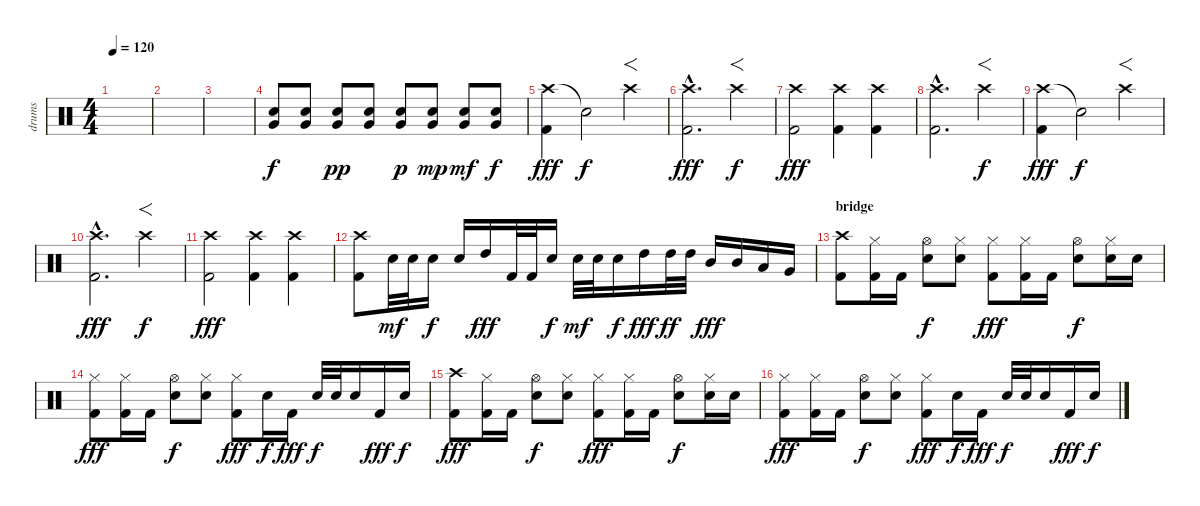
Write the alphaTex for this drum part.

\track ("drums" "drums") {instrument percussion}
\staff {score}
\articulation defaults
\ts (4 4)
\tempo 120
\clef neutral
\ks c
|
|
|
("Snare (hit) 2" "Very Low Tom (hit)").8 ("Snare (hit) 2" "Very Low Tom (hit)").8 ("Snare (hit) 2" "Very Low Tom (hit)").8{dy pp} ("Snare (hit) 2" "Very Low Tom (hit)").8 ("Snare (hit) 2" "Very Low Tom (hit)").8{dy p} ("Snare (hit) 2" "Very Low Tom (hit)").8{dy mp} ("Snare (hit) 2" "Very Low Tom (hit)").8{dy mf} ("Snare (hit) 2" "Very Low Tom (hit)").8{dy f} |
("Crash high (hit)" "Kick (hit) 2").4{dy fff} "Snare (hit)"{t}.2{dy f} "Crash high (hit)".4{f} |
("Crash high (hit)"{hac} "Kick (hit) 2"{hac}).2{d dy fff} "Crash high (hit)".4{f dy f} |
("Crash high (hit)" "Kick (hit) 2").2{dy fff} ("Crash high (hit)" "Kick (hit) 2").4 ("Crash high (hit)" "Kick (hit) 2").4 |
("Crash high (hit)"{hac} "Kick (hit) 2"{hac}).2{d} "Crash high (hit)".4{f dy f} |
("Crash high (hit)" "Kick (hit) 2").4{dy fff} "Snare (hit)"{t}.2{dy f} "Crash high (hit)".4{f} |
("Crash high (hit)"{hac} "Kick (hit) 2"{hac}).2{d dy fff} "Crash high (hit)".4{f dy f} |
("Crash high (hit)" "Kick (hit) 2").2{dy fff} ("Crash high (hit)" "Kick (hit) 2").4 ("Crash high (hit)" "Kick (hit) 2").4 |
("Crash high (hit)" "Kick (hit) 2").8 "Snare (hit) 2".32{dy mf} "Snare (hit) 2".32 "Snare (hit) 2".16{dy f} "Snare (hit) 2".16 "High Tom (hit)".16{dy fff} "Kick (hit) 2".32 "Kick (hit) 2".32 "Snare (hit) 2".16{dy f} "Snare (hit) 2".32{dy mf} "Snare (hit) 2".32 "Snare (hit) 2".16{dy f} "High Tom (hit)".16{dy fff} "High Tom (hit)".32{dy ff} "High Tom (hit)".32 "Mid Tom (hit)".16{dy fff} "Mid Tom (hit)".16 "Low Tom (hit)".16 "Very Low Tom (hit)".16 |
\section ("" "bridge")
("Crash high (hit)" "Kick (hit) 2").8 ("Hi-Hat (closed)" "Kick (hit) 2").16 "Kick (hit) 2".16 ("Hi-Hat (open)" "Snare (hit) 2").8{dy f} ("Hi-Hat (closed)" "Snare (hit) 2").8 ("Hi-Hat (closed)" "Kick (hit) 2").8{dy fff} ("Hi-Hat (closed)" "Kick (hit) 2").16 "Kick (hit) 2".16 ("Hi-Hat (open)" "Snare (hit) 2").8{dy f} ("Hi-Hat (closed)" "Snare (hit) 2").16 "Snare (hit) 2".16 |
("Hi-Hat (closed)" "Kick (hit) 2").8{dy fff} ("Hi-Hat (closed)" "Kick (hit) 2").16 "Kick (hit) 2".16 ("Hi-Hat (open)" "Snare (hit) 2").8{dy f} ("Hi-Hat (closed)" "Snare (hit) 2").8 ("Hi-Hat (closed)" "Kick (hit) 2").8{dy fff} "Snare (hit) 2".16{dy f} "Kick (hit) 2".16{dy fff} "Snare (hit) 2".32{dy f} "Snare (hit) 2".32 "Snare (hit) 2".16 "Kick (hit) 2".16{dy fff} "Snare (hit) 2".16{dy f} |
("Crash high (hit)" "Kick (hit) 2").8{dy fff} ("Hi-Hat (closed)" "Kick (hit) 2").16 "Kick (hit) 2".16 ("Hi-Hat (open)" "Snare (hit) 2").8{dy f} ("Hi-Hat (closed)" "Snare (hit) 2").8 ("Hi-Hat (closed)" "Kick (hit) 2").8{dy fff} ("Hi-Hat (closed)" "Kick (hit) 2").16 "Kick (hit) 2".16 ("Hi-Hat (open)" "Snare (hit) 2").8{dy f} ("Hi-Hat (closed)" "Snare (hit) 2").16 "Snare (hit) 2".16 |
("Hi-Hat (closed)" "Kick (hit) 2").8{dy fff} ("Hi-Hat (closed)" "Kick (hit) 2").16 "Kick (hit) 2".16 ("Hi-Hat (open)" "Snare (hit) 2").8{dy f} ("Hi-Hat (closed)" "Snare (hit) 2").8 ("Hi-Hat (closed)" "Kick (hit) 2").8{dy fff} "Snare (hit) 2".16{dy f} "Kick (hit) 2".16{dy fff} "Snare (hit) 2".32{dy f} "Snare (hit) 2".32 "Snare (hit) 2".16 "Kick (hit) 2".16{dy fff} "Snare (hit) 2".16{dy f}
